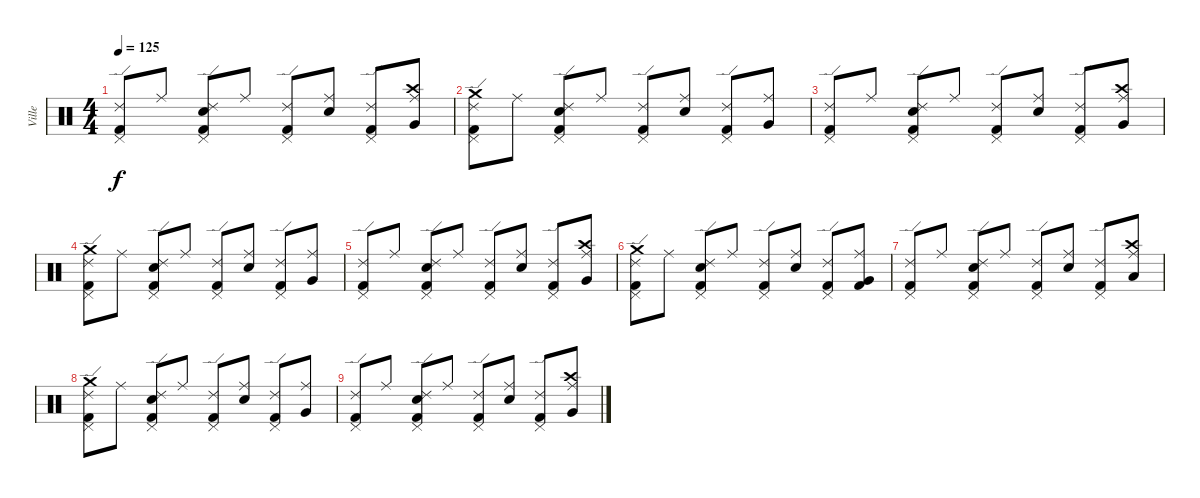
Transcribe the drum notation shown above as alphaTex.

\track ("Ville" "Ville") {instrument percussion}
\staff {score}
\articulation defaults
\ts (4 4)
\tempo 125
\clef neutral
\ks c
("Pedal Hi-Hat (hit)" "Ride (edge) 2" "Kick (hit) 2").8{dy f} "Ride (middle)".8 ("Snare (hit) 2" "Pedal Hi-Hat (hit)" "Ride (edge) 2" "Kick (hit) 2").8 "Ride (middle)".8 ("Pedal Hi-Hat (hit)" "Ride (edge) 2" "Kick (hit) 2").8 ("Snare (hit) 2" "Ride (middle)").8 ("Pedal Hi-Hat (hit)" "Ride (edge) 2" "Kick (hit) 2").8 ("Crash high (hit)" "Very Low Tom (hit)" "Ride (middle)").8 |
("Crash medium (hit)" "Pedal Hi-Hat (hit)" "Ride (edge) 2" "Kick (hit) 2").8 "Ride (middle)".8 ("Snare (hit) 2" "Pedal Hi-Hat (hit)" "Ride (edge) 2" "Kick (hit) 2").8 "Ride (middle)".8 ("Pedal Hi-Hat (hit)" "Ride (edge) 2" "Kick (hit) 2").8 ("Snare (hit) 2" "Ride (middle)").8 ("Pedal Hi-Hat (hit)" "Ride (edge) 2" "Kick (hit) 2").8 ("Very Low Tom (hit)" "Ride (middle)").8 |
("Pedal Hi-Hat (hit)" "Ride (edge) 2" "Kick (hit) 2").8 "Ride (middle)".8 ("Snare (hit) 2" "Pedal Hi-Hat (hit)" "Ride (edge) 2" "Kick (hit) 2").8 "Ride (middle)".8 ("Pedal Hi-Hat (hit)" "Ride (edge) 2" "Kick (hit) 2").8 ("Snare (hit) 2" "Ride (middle)").8 ("Pedal Hi-Hat (hit)" "Ride (edge) 2" "Kick (hit) 2").8 ("Crash high (hit)" "Very Low Tom (hit)" "Ride (middle)").8 |
("Crash medium (hit)" "Pedal Hi-Hat (hit)" "Ride (edge) 2" "Kick (hit) 2").8 "Ride (middle)".8 ("Snare (hit) 2" "Pedal Hi-Hat (hit)" "Ride (edge) 2" "Kick (hit) 2").8 "Ride (middle)".8 ("Pedal Hi-Hat (hit)" "Ride (edge) 2" "Kick (hit) 2").8 ("Snare (hit) 2" "Ride (middle)").8 ("Pedal Hi-Hat (hit)" "Ride (edge) 2" "Kick (hit) 2").8 ("Very Low Tom (hit)" "Ride (middle)").8 |
("Pedal Hi-Hat (hit)" "Ride (edge) 2" "Kick (hit) 2").8 "Ride (middle)".8 ("Snare (hit) 2" "Pedal Hi-Hat (hit)" "Ride (edge) 2" "Kick (hit) 2").8 "Ride (middle)".8 ("Pedal Hi-Hat (hit)" "Ride (edge) 2" "Kick (hit) 2").8 ("Snare (hit) 2" "Ride (middle)").8 ("Pedal Hi-Hat (hit)" "Ride (edge) 2" "Kick (hit) 2").8 ("Crash high (hit)" "Very Low Tom (hit)" "Ride (middle)").8 |
("Crash medium (hit)" "Pedal Hi-Hat (hit)" "Ride (edge) 2" "Kick (hit) 2").8 "Ride (middle)".8 ("Snare (hit) 2" "Pedal Hi-Hat (hit)" "Ride (edge) 2" "Kick (hit) 2").8 "Ride (middle)".8 ("Pedal Hi-Hat (hit)" "Ride (edge) 2" "Kick (hit) 2").8 ("Snare (hit) 2" "Ride (middle)").8 ("Pedal Hi-Hat (hit)" "Ride (edge) 2" "Kick (hit) 2").8 ("Very Low Tom (hit)" "Ride (middle)" "Kick (hit) 2").8 |
("Pedal Hi-Hat (hit)" "Ride (edge) 2" "Kick (hit) 2").8 "Ride (middle)".8 ("Snare (hit) 2" "Pedal Hi-Hat (hit)" "Ride (edge) 2" "Kick (hit) 2").8 "Ride (middle)".8 ("Pedal Hi-Hat (hit)" "Ride (edge) 2" "Kick (hit) 2").8 ("Snare (hit) 2" "Ride (middle)").8 ("Pedal Hi-Hat (hit)" "Ride (edge) 2" "Kick (hit) 2").8 ("Crash high (hit)" "Low Floor Tom (hit)" "Ride (middle)").8 |
("Crash medium (hit)" "Pedal Hi-Hat (hit)" "Ride (edge) 2" "Kick (hit) 2").8 "Ride (middle)".8 ("Snare (hit) 2" "Pedal Hi-Hat (hit)" "Ride (edge) 2" "Kick (hit) 2").8 "Ride (middle)".8 ("Pedal Hi-Hat (hit)" "Ride (edge) 2" "Kick (hit) 2").8 ("Snare (hit) 2" "Ride (middle)").8 ("Pedal Hi-Hat (hit)" "Ride (edge) 2" "Kick (hit) 2").8 ("Very Low Tom (hit)" "Ride (middle)").8 |
("Pedal Hi-Hat (hit)" "Ride (edge) 2" "Kick (hit) 2").8 "Ride (middle)".8 ("Snare (hit) 2" "Pedal Hi-Hat (hit)" "Ride (edge) 2" "Kick (hit) 2").8 "Ride (middle)".8 ("Pedal Hi-Hat (hit)" "Ride (edge) 2" "Kick (hit) 2").8 ("Snare (hit) 2" "Ride (middle)").8 ("Pedal Hi-Hat (hit)" "Ride (edge) 2" "Kick (hit) 2").8 ("Crash high (hit)" "Very Low Tom (hit)" "Ride (middle)").8
